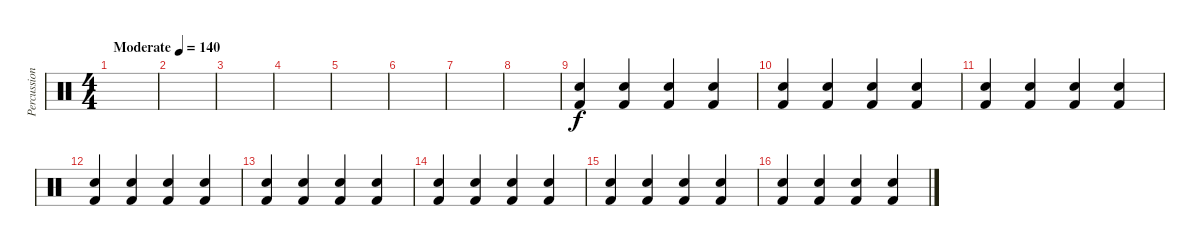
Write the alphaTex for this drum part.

\track ("Percussions" "Percussion") {instrument percussion}
\staff {score}
\articulation defaults
\ts (4 4)
\tempo (140 "Moderate")
\clef neutral
\ks c
|
|
|
|
|
|
|
|
("Kick (hit) 2" "Hand Clap (hit)").4 ("Kick (hit) 2" "Hand Clap (hit)").4 ("Kick (hit) 2" "Hand Clap (hit)").4 ("Kick (hit) 2" "Hand Clap (hit)").4 |
("Kick (hit) 2" "Hand Clap (hit)").4 ("Kick (hit) 2" "Hand Clap (hit)").4 ("Kick (hit) 2" "Hand Clap (hit)").4 ("Kick (hit) 2" "Hand Clap (hit)").4 |
("Kick (hit) 2" "Hand Clap (hit)").4 ("Kick (hit) 2" "Hand Clap (hit)").4 ("Kick (hit) 2" "Hand Clap (hit)").4 ("Kick (hit) 2" "Hand Clap (hit)").4 |
("Kick (hit) 2" "Hand Clap (hit)").4 ("Kick (hit) 2" "Hand Clap (hit)").4 ("Kick (hit) 2" "Hand Clap (hit)").4 ("Kick (hit) 2" "Hand Clap (hit)").4 |
("Kick (hit) 2" "Hand Clap (hit)").4 ("Kick (hit) 2" "Hand Clap (hit)").4 ("Kick (hit) 2" "Hand Clap (hit)").4 ("Kick (hit) 2" "Hand Clap (hit)").4 |
("Kick (hit) 2" "Hand Clap (hit)").4 ("Kick (hit) 2" "Hand Clap (hit)").4 ("Kick (hit) 2" "Hand Clap (hit)").4 ("Kick (hit) 2" "Hand Clap (hit)").4 |
("Kick (hit) 2" "Hand Clap (hit)").4 ("Kick (hit) 2" "Hand Clap (hit)").4 ("Kick (hit) 2" "Hand Clap (hit)").4 ("Kick (hit) 2" "Hand Clap (hit)").4 |
("Kick (hit) 2" "Hand Clap (hit)").4 ("Kick (hit) 2" "Hand Clap (hit)").4 ("Kick (hit) 2" "Hand Clap (hit)").4 ("Kick (hit) 2" "Hand Clap (hit)").4
